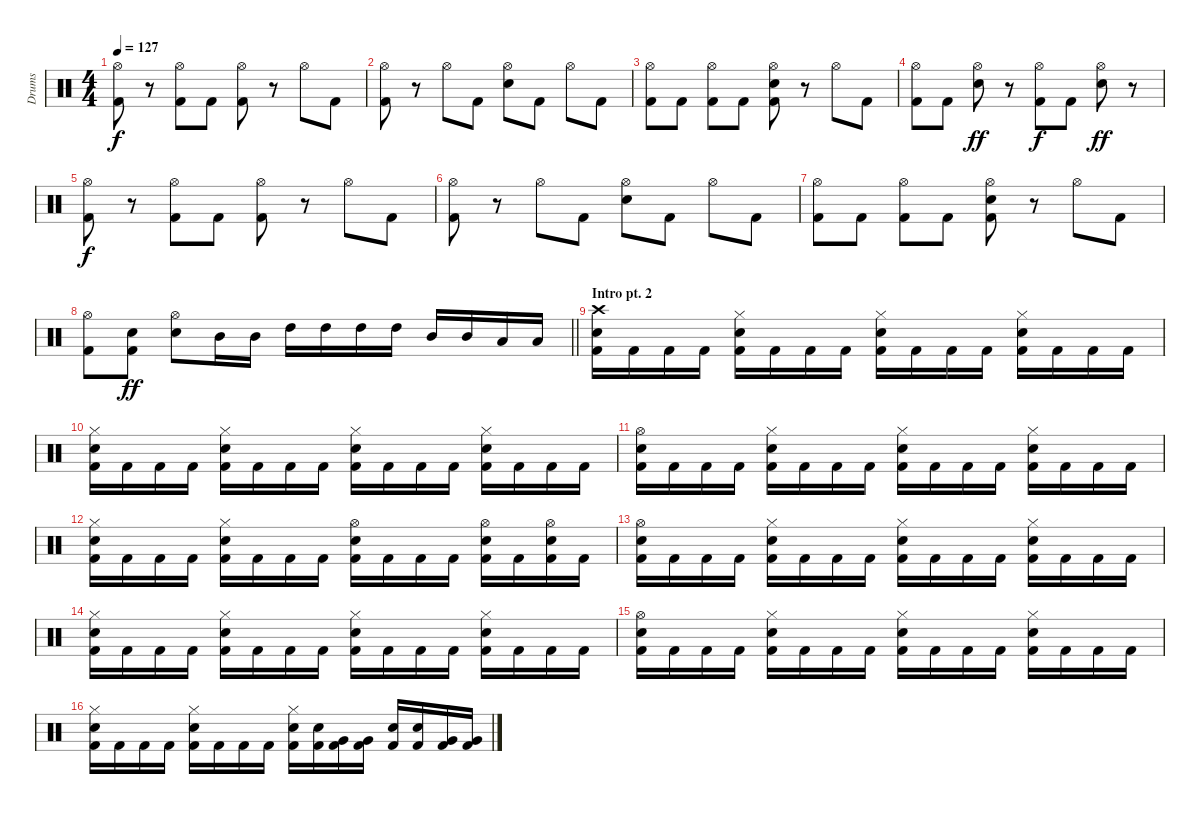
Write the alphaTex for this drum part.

\track ("Drums" "Drums") {instrument percussion}
\staff {score}
\articulation defaults
\ts (4 4)
\tempo 127
\clef neutral
\ks c
("Hi-Hat (open)" "Kick (hit) 2").8{dy f} r.8 ("Hi-Hat (open)" "Kick (hit) 2").8 "Kick (hit) 2".8 ("Hi-Hat (open)" "Kick (hit) 2").8 r.8 "Hi-Hat (open)".8 "Kick (hit) 2".8 |
("Hi-Hat (open)" "Kick (hit) 2").8 r.8 "Hi-Hat (open)".8 "Kick (hit) 2".8 ("Hi-Hat (open)" "Electric Snare (hit)").8 "Kick (hit) 2".8 "Hi-Hat (open)".8 "Kick (hit) 2".8 |
("Hi-Hat (open)" "Kick (hit) 2").8 "Kick (hit) 2".8 ("Hi-Hat (open)" "Kick (hit) 2").8 "Kick (hit) 2".8 ("Hi-Hat (open)" "Electric Snare (hit)" "Kick (hit) 2").8 r.8 "Hi-Hat (open)".8 "Kick (hit) 2".8 |
("Hi-Hat (open)" "Kick (hit) 2").8 "Kick (hit) 2".8 ("Hi-Hat (open)" "Electric Snare (hit)").8{dy ff} r.8 ("Hi-Hat (open)" "Kick (hit) 2").8{dy f} "Kick (hit) 2".8 ("Hi-Hat (open)" "Electric Snare (hit)").8{dy ff} r.8 |
("Hi-Hat (open)" "Kick (hit) 2").8{dy f} r.8 ("Hi-Hat (open)" "Kick (hit) 2").8 "Kick (hit) 2".8 ("Hi-Hat (open)" "Kick (hit) 2").8 r.8 "Hi-Hat (open)".8 "Kick (hit) 2".8 |
("Hi-Hat (open)" "Kick (hit) 2").8 r.8 "Hi-Hat (open)".8 "Kick (hit) 2".8 ("Hi-Hat (open)" "Electric Snare (hit)").8 "Kick (hit) 2".8 "Hi-Hat (open)".8 "Kick (hit) 2".8 |
("Hi-Hat (open)" "Kick (hit) 2").8 "Kick (hit) 2".8 ("Hi-Hat (open)" "Kick (hit) 2").8 "Kick (hit) 2".8 ("Hi-Hat (open)" "Electric Snare (hit)" "Kick (hit) 2").8 r.8 "Hi-Hat (open)".8 "Kick (hit) 2".8 |
\barLineRight lightlight
("Hi-Hat (open)" "Kick (hit) 2").8 ("Electric Snare (hit)" "Kick (hit) 2").8{dy ff} ("Hi-Hat (open)" "Electric Snare (hit)").8 "Mid Tom (hit)".16 "Mid Tom (hit)".16 "High Tom (hit)".16 "High Tom (hit)".16 "High Tom (hit)".16 "High Tom (hit)".16 "Mid Tom (hit)".16 "Mid Tom (hit)".16 "Low Tom (hit)".16 "Low Tom (hit)".16 |
\section ("" "Intro pt. 2")
("Crash high (hit)" "Electric Snare (hit)" "Kick (hit) 2").16 "Kick (hit) 2".16 "Kick (hit) 2".16 "Kick (hit) 2".16 ("Hi-Hat (closed)" "Electric Snare (hit)" "Kick (hit) 2").16 "Kick (hit) 2".16 "Kick (hit) 2".16 "Kick (hit) 2".16 ("Hi-Hat (closed)" "Electric Snare (hit)" "Kick (hit) 2").16 "Kick (hit) 2".16 "Kick (hit) 2".16 "Kick (hit) 2".16 ("Hi-Hat (closed)" "Electric Snare (hit)" "Kick (hit) 2").16 "Kick (hit) 2".16 "Kick (hit) 2".16 "Kick (hit) 2".16 |
("Hi-Hat (closed)" "Electric Snare (hit)" "Kick (hit) 2").16 "Kick (hit) 2".16 "Kick (hit) 2".16 "Kick (hit) 2".16 ("Hi-Hat (closed)" "Electric Snare (hit)" "Kick (hit) 2").16 "Kick (hit) 2".16 "Kick (hit) 2".16 "Kick (hit) 2".16 ("Hi-Hat (closed)" "Electric Snare (hit)" "Kick (hit) 2").16 "Kick (hit) 2".16 "Kick (hit) 2".16 "Kick (hit) 2".16 ("Hi-Hat (closed)" "Electric Snare (hit)" "Kick (hit) 2").16 "Kick (hit) 2".16 "Kick (hit) 2".16 "Kick (hit) 2".16 |
("Hi-Hat (open)" "Electric Snare (hit)" "Kick (hit) 2").16 "Kick (hit) 2".16 "Kick (hit) 2".16 "Kick (hit) 2".16 ("Hi-Hat (closed)" "Electric Snare (hit)" "Kick (hit) 2").16 "Kick (hit) 2".16 "Kick (hit) 2".16 "Kick (hit) 2".16 ("Hi-Hat (closed)" "Electric Snare (hit)" "Kick (hit) 2").16 "Kick (hit) 2".16 "Kick (hit) 2".16 "Kick (hit) 2".16 ("Hi-Hat (closed)" "Electric Snare (hit)" "Kick (hit) 2").16 "Kick (hit) 2".16 "Kick (hit) 2".16 "Kick (hit) 2".16 |
("Hi-Hat (closed)" "Electric Snare (hit)" "Kick (hit) 2").16 "Kick (hit) 2".16 "Kick (hit) 2".16 "Kick (hit) 2".16 ("Hi-Hat (closed)" "Electric Snare (hit)" "Kick (hit) 2").16 "Kick (hit) 2".16 "Kick (hit) 2".16 "Kick (hit) 2".16 ("Hi-Hat (open)" "Electric Snare (hit)" "Kick (hit) 2").16 "Kick (hit) 2".16 "Kick (hit) 2".16 "Kick (hit) 2".16 ("Hi-Hat (open)" "Electric Snare (hit)" "Kick (hit) 2").16 "Kick (hit) 2".16 ("Hi-Hat (open)" "Electric Snare (hit)" "Kick (hit) 2").16 "Kick (hit) 2".16 |
("Hi-Hat (open)" "Electric Snare (hit)" "Kick (hit) 2").16 "Kick (hit) 2".16 "Kick (hit) 2".16 "Kick (hit) 2".16 ("Hi-Hat (closed)" "Electric Snare (hit)" "Kick (hit) 2").16 "Kick (hit) 2".16 "Kick (hit) 2".16 "Kick (hit) 2".16 ("Hi-Hat (closed)" "Electric Snare (hit)" "Kick (hit) 2").16 "Kick (hit) 2".16 "Kick (hit) 2".16 "Kick (hit) 2".16 ("Hi-Hat (closed)" "Electric Snare (hit)" "Kick (hit) 2").16 "Kick (hit) 2".16 "Kick (hit) 2".16 "Kick (hit) 2".16 |
("Hi-Hat (closed)" "Electric Snare (hit)" "Kick (hit) 2").16 "Kick (hit) 2".16 "Kick (hit) 2".16 "Kick (hit) 2".16 ("Hi-Hat (closed)" "Electric Snare (hit)" "Kick (hit) 2").16 "Kick (hit) 2".16 "Kick (hit) 2".16 "Kick (hit) 2".16 ("Hi-Hat (closed)" "Electric Snare (hit)" "Kick (hit) 2").16 "Kick (hit) 2".16 "Kick (hit) 2".16 "Kick (hit) 2".16 ("Hi-Hat (closed)" "Electric Snare (hit)" "Kick (hit) 2").16 "Kick (hit) 2".16 "Kick (hit) 2".16 "Kick (hit) 2".16 |
("Hi-Hat (open)" "Electric Snare (hit)" "Kick (hit) 2").16 "Kick (hit) 2".16 "Kick (hit) 2".16 "Kick (hit) 2".16 ("Hi-Hat (closed)" "Electric Snare (hit)" "Kick (hit) 2").16 "Kick (hit) 2".16 "Kick (hit) 2".16 "Kick (hit) 2".16 ("Hi-Hat (closed)" "Electric Snare (hit)" "Kick (hit) 2").16 "Kick (hit) 2".16 "Kick (hit) 2".16 "Kick (hit) 2".16 ("Hi-Hat (closed)" "Electric Snare (hit)" "Kick (hit) 2").16 "Kick (hit) 2".16 "Kick (hit) 2".16 "Kick (hit) 2".16 |
("Hi-Hat (closed)" "Electric Snare (hit)" "Kick (hit) 2").16 "Kick (hit) 2".16 "Kick (hit) 2".16 "Kick (hit) 2".16 ("Hi-Hat (closed)" "Electric Snare (hit)" "Kick (hit) 2").16 "Kick (hit) 2".16 "Kick (hit) 2".16 "Kick (hit) 2".16 ("Hi-Hat (closed)" "Electric Snare (hit)" "Kick (hit) 2").16 ("Electric Snare (hit)" "Kick (hit) 2").16 ("Very Low Tom (hit)" "Kick (hit) 2").16 ("Very Low Tom (hit)" "Kick (hit) 2").16 ("Electric Snare (hit)" "Kick (hit) 2").16 ("Electric Snare (hit)" "Kick (hit) 2").16 ("Very Low Tom (hit)" "Kick (hit) 2").16 ("Very Low Tom (hit)" "Kick (hit) 2").16
